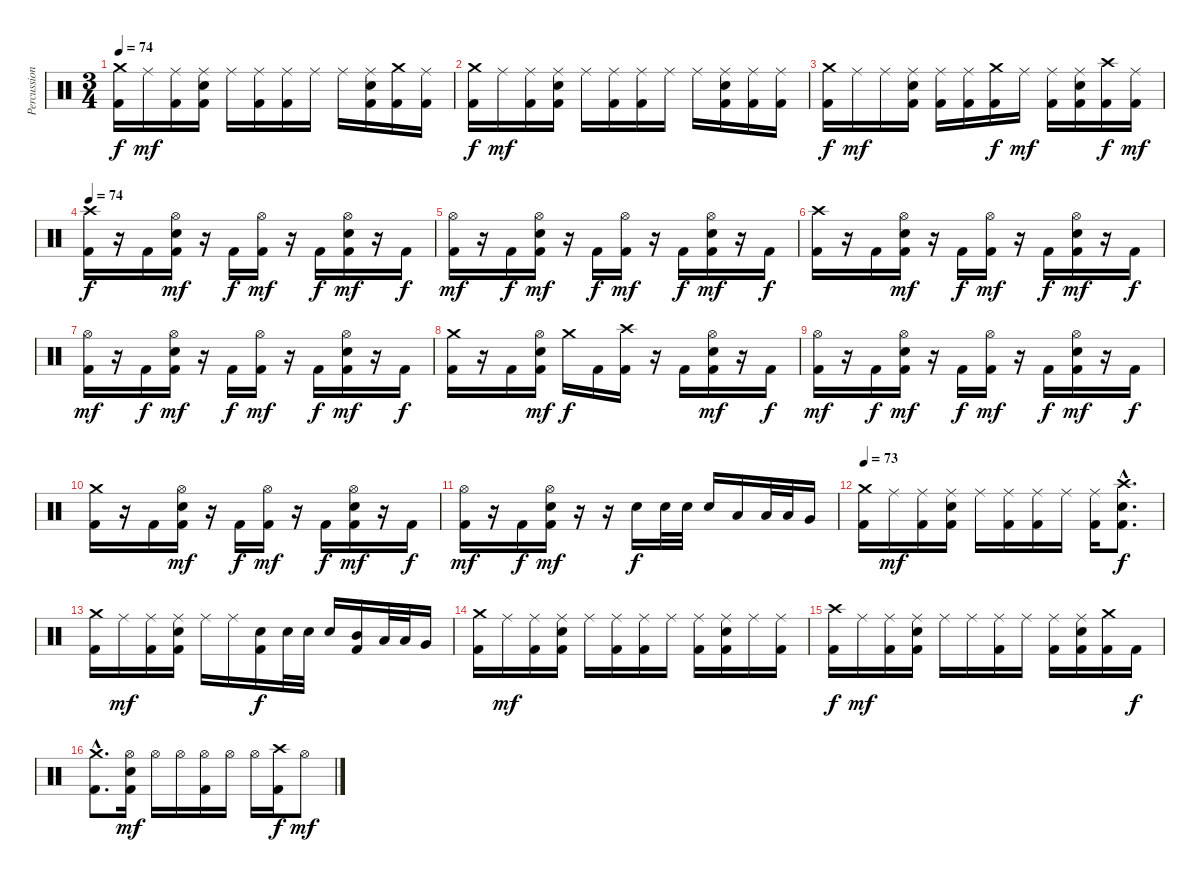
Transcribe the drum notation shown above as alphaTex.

\track ("Percussion" "Percussion") {instrument percussion}
\staff {score}
\articulation defaults
\ts (3 4)
\tempo 74
\clef neutral
\ks c
("Crash medium (hit)" "Kick (hit) 2").16{dy f} "Ride (middle)".16{dy mf} ("Ride (middle)" "Kick (hit) 2").16 ("Ride (middle)" "Electric Snare (hit)" "Kick (hit) 2").16 "Ride (middle)".16 ("Ride (middle)" "Kick (hit) 2").16 ("Ride (middle)" "Kick (hit) 2").16 "Ride (middle)".16 "Ride (middle)".16 ("Ride (middle)" "Electric Snare (hit)" "Kick (hit) 2").16 ("Crash medium (hit)" "Kick (hit) 2").16 ("Ride (middle)" "Kick (hit) 2").16 |
("Crash medium (hit)" "Kick (hit) 2").16{dy f} "Ride (middle)".16{dy mf} ("Ride (middle)" "Kick (hit) 2").16 ("Ride (middle)" "Electric Snare (hit)" "Kick (hit) 2").16 "Ride (middle)".16 ("Ride (middle)" "Kick (hit) 2").16 ("Ride (middle)" "Kick (hit) 2").16 "Ride (middle)".16 "Ride (middle)".16 ("Ride (middle)" "Electric Snare (hit)" "Kick (hit) 2").16 ("Ride (middle)" "Kick (hit) 2").16 ("Ride (middle)" "Kick (hit) 2").16 |
("Crash medium (hit)" "Kick (hit) 2").16{dy f} "Ride (middle)".16{dy mf} "Ride (middle)".16 ("Ride (middle)" "Electric Snare (hit)" "Kick (hit) 2").16 ("Ride (middle)" "Kick (hit) 2").16 ("Ride (middle)" "Kick (hit) 2").16 ("Crash medium (hit)" "Kick (hit) 2").16{dy f} "Ride (middle)".16{dy mf} ("Ride (middle)" "Kick (hit) 2").16 ("Ride (middle)" "Electric Snare (hit)" "Kick (hit) 2").16 ("Crash high (hit)" "Kick (hit) 2").16{dy f} ("Ride (middle)" "Kick (hit) 2").16{dy mf} |
\tempo 74
("Crash high (hit)" "Kick (hit) 2").16{dy f} r.16 "Kick (hit) 2".16 ("Hi-Hat (open)" "Electric Snare (hit)" "Kick (hit) 2").16{dy mf} r.16 "Kick (hit) 2".16{dy f} ("Hi-Hat (open)" "Kick (hit) 2").16{dy mf} r.16 "Kick (hit) 2".16{dy f} ("Hi-Hat (open)" "Electric Snare (hit)" "Kick (hit) 2").16{dy mf} r.16 "Kick (hit) 2".16{dy f} |
("Hi-Hat (open)" "Kick (hit) 2").16{dy mf} r.16 "Kick (hit) 2".16{dy f} ("Hi-Hat (open)" "Electric Snare (hit)" "Kick (hit) 2").16{dy mf} r.16 "Kick (hit) 2".16{dy f} ("Hi-Hat (open)" "Kick (hit) 2").16{dy mf} r.16 "Kick (hit) 2".16{dy f} ("Hi-Hat (open)" "Electric Snare (hit)" "Kick (hit) 2").16{dy mf} r.16 "Kick (hit) 2".16{dy f} |
("Crash high (hit)" "Kick (hit) 2").16 r.16 "Kick (hit) 2".16 ("Hi-Hat (open)" "Electric Snare (hit)" "Kick (hit) 2").16{dy mf} r.16 "Kick (hit) 2".16{dy f} ("Hi-Hat (open)" "Kick (hit) 2").16{dy mf} r.16 "Kick (hit) 2".16{dy f} ("Hi-Hat (open)" "Electric Snare (hit)" "Kick (hit) 2").16{dy mf} r.16 "Kick (hit) 2".16{dy f} |
("Hi-Hat (open)" "Kick (hit) 2").16{dy mf} r.16 "Kick (hit) 2".16{dy f} ("Hi-Hat (open)" "Electric Snare (hit)" "Kick (hit) 2").16{dy mf} r.16 "Kick (hit) 2".16{dy f} ("Hi-Hat (open)" "Kick (hit) 2").16{dy mf} r.16 "Kick (hit) 2".16{dy f} ("Hi-Hat (open)" "Electric Snare (hit)" "Kick (hit) 2").16{dy mf} r.16 "Kick (hit) 2".16{dy f} |
("Crash medium (hit)" "Kick (hit) 2").16 r.16 "Kick (hit) 2".16 ("Hi-Hat (open)" "Electric Snare (hit)" "Kick (hit) 2").16{dy mf} "Crash medium (hit)".16{dy f} "Kick (hit) 2".16 ("Crash high (hit)" "Kick (hit) 2").16 r.16 "Kick (hit) 2".16 ("Hi-Hat (open)" "Electric Snare (hit)" "Kick (hit) 2").16{dy mf} r.16 "Kick (hit) 2".16{dy f} |
("Hi-Hat (open)" "Kick (hit) 2").16{dy mf} r.16 "Kick (hit) 2".16{dy f} ("Hi-Hat (open)" "Electric Snare (hit)" "Kick (hit) 2").16{dy mf} r.16 "Kick (hit) 2".16{dy f} ("Hi-Hat (open)" "Kick (hit) 2").16{dy mf} r.16 "Kick (hit) 2".16{dy f} ("Hi-Hat (open)" "Electric Snare (hit)" "Kick (hit) 2").16{dy mf} r.16 "Kick (hit) 2".16{dy f} |
("Crash medium (hit)" "Kick (hit) 2").16 r.16 "Kick (hit) 2".16 ("Hi-Hat (open)" "Electric Snare (hit)" "Kick (hit) 2").16{dy mf} r.16 "Kick (hit) 2".16{dy f} ("Hi-Hat (open)" "Kick (hit) 2").16{dy mf} r.16 "Kick (hit) 2".16{dy f} ("Hi-Hat (open)" "Electric Snare (hit)" "Kick (hit) 2").16{dy mf} r.16 "Kick (hit) 2".16{dy f} |
("Hi-Hat (open)" "Kick (hit) 2").16{dy mf} r.16 "Kick (hit) 2".16{dy f} ("Hi-Hat (open)" "Electric Snare (hit)" "Kick (hit) 2").16{dy mf} r.16 r.16 "Electric Snare (hit)".16{dy f} "Electric Snare (hit)".32 "Electric Snare (hit)".32 "Electric Snare (hit)".16 "Low Tom (hit)".16 "Low Tom (hit)".32 "Low Tom (hit)".32 "Very Low Tom (hit)".16 |
\tempo 73
("Crash medium (hit)" "Kick (hit) 2").16 "Ride (middle)".16{dy mf} ("Ride (middle)" "Kick (hit) 2").16 ("Ride (middle)" "Electric Snare (hit)" "Kick (hit) 2").16 "Ride (middle)".16 ("Ride (middle)" "Kick (hit) 2").16 ("Ride (middle)" "Kick (hit) 2").16 "Ride (middle)".16 ("Ride (middle)" "Kick (hit) 2").16 ("Crash high (hit)"{hac} "Electric Snare (hit)"{hac} "Kick (hit) 2"{hac}).8{d dy f} |
("Crash medium (hit)" "Kick (hit) 2").16 "Ride (middle)".16{dy mf} ("Ride (middle)" "Kick (hit) 2").16 ("Ride (middle)" "Electric Snare (hit)" "Kick (hit) 2").16 "Ride (middle)".16 "Ride (middle)".16 ("Electric Snare (hit)" "Kick (hit) 2").16{dy f} "Electric Snare (hit)".32 "Electric Snare (hit)".32 "Electric Snare (hit)".16 ("Mid Tom (hit)" "Kick (hit) 2").16 "Low Tom (hit)".32 "Low Tom (hit)".32 "Very Low Tom (hit)".16 |
("Crash medium (hit)" "Kick (hit) 2").16 "Ride (middle)".16{dy mf} ("Ride (middle)" "Kick (hit) 2").16 ("Ride (middle)" "Electric Snare (hit)" "Kick (hit) 2").16 "Ride (middle)".16 ("Ride (middle)" "Kick (hit) 2").16 ("Ride (middle)" "Kick (hit) 2").16 "Ride (middle)".16 ("Ride (middle)" "Kick (hit) 2").16 ("Ride (middle)" "Electric Snare (hit)" "Kick (hit) 2").16 "Ride (middle)".16 ("Ride (middle)" "Kick (hit) 2").16 |
("Crash high (hit)" "Kick (hit) 2").16{dy f} "Ride (middle)".16{dy mf} ("Ride (middle)" "Kick (hit) 2").16 ("Ride (middle)" "Electric Snare (hit)" "Kick (hit) 2").16 "Ride (middle)".16 "Ride (middle)".16 ("Ride (middle)" "Kick (hit) 2").16 "Ride (middle)".16 ("Ride (middle)" "Kick (hit) 2").16 ("Ride (middle)" "Electric Snare (hit)" "Kick (hit) 2").16 ("Crash medium (hit)" "Kick (hit) 2").16 "Kick (hit) 2".16{dy f} |
("Crash medium (hit)"{hac} "Kick (hit) 2"{hac}).8{d} ("Hi-Hat (open)" "Electric Snare (hit)" "Kick (hit) 2").16{dy mf} "Hi-Hat (open)".16 "Hi-Hat (open)".16 ("Hi-Hat (open)" "Kick (hit) 2").16 "Hi-Hat (open)".16 "Hi-Hat (open)".16 ("Crash high (hit)" "Kick (hit) 2").16{dy f} "Hi-Hat (open)".8{dy mf}
